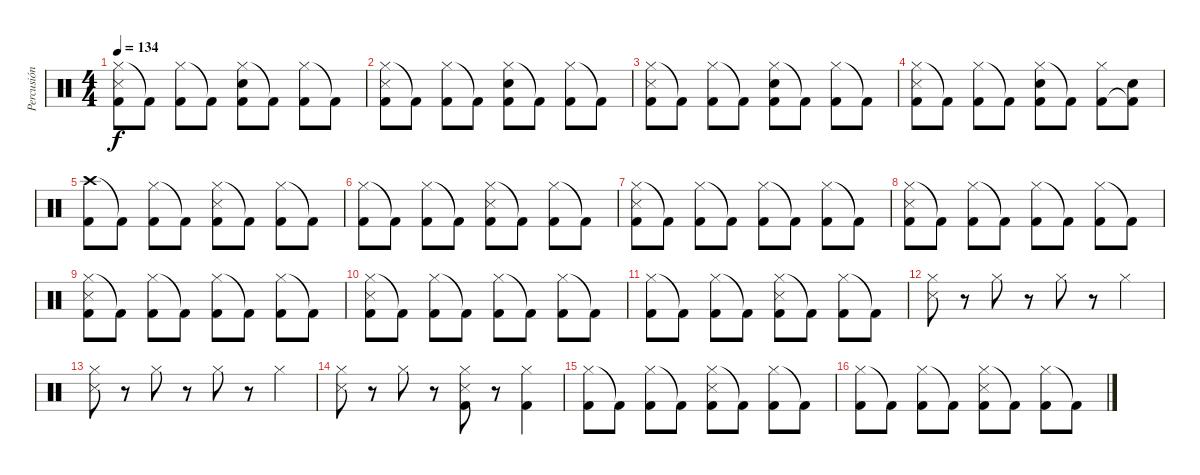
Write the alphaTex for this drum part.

\track ("Percusión" "Percusión") {instrument percussion}
\staff {score}
\articulation defaults
\ts (4 4)
\tempo 134
\clef neutral
\ks c
("Hi-Hat (closed)" "Snare (side stick) 3" "Kick (hit) 2").8{dy f} "Kick (hit) 2"{t}.8 ("Hi-Hat (closed)" "Kick (hit) 2").8 "Kick (hit) 2"{t}.8 ("Hi-Hat (closed)" "Snare (hit) 2" "Kick (hit) 2").8 "Kick (hit) 2"{t}.8 ("Hi-Hat (closed)" "Kick (hit) 2").8 "Kick (hit) 2"{t}.8 |
("Hi-Hat (closed)" "Snare (side stick) 3" "Kick (hit) 2").8 "Kick (hit) 2"{t}.8 ("Hi-Hat (closed)" "Kick (hit) 2").8 "Kick (hit) 2"{t}.8 ("Hi-Hat (closed)" "Snare (hit) 2" "Kick (hit) 2").8 "Kick (hit) 2"{t}.8 ("Hi-Hat (closed)" "Kick (hit) 2").8 "Kick (hit) 2"{t}.8 |
("Hi-Hat (closed)" "Snare (side stick) 3" "Kick (hit) 2").8 "Kick (hit) 2"{t}.8 ("Hi-Hat (closed)" "Kick (hit) 2").8 "Kick (hit) 2"{t}.8 ("Hi-Hat (closed)" "Snare (hit) 2" "Kick (hit) 2").8 "Kick (hit) 2"{t}.8 ("Hi-Hat (closed)" "Kick (hit) 2").8 "Kick (hit) 2"{t}.8 |
("Hi-Hat (closed)" "Snare (side stick) 3" "Kick (hit) 2").8 "Kick (hit) 2"{t}.8 ("Hi-Hat (closed)" "Kick (hit) 2").8 "Kick (hit) 2"{t}.8 ("Hi-Hat (closed)" "Snare (hit) 2" "Kick (hit) 2").8 "Kick (hit) 2"{t}.8 ("Hi-Hat (closed)" "Kick (hit) 2").8 ("Electric Snare (hit)" "Kick (hit) 2"{t}).8 |
("Crash high (hit)" "Kick (hit) 2").8 "Kick (hit) 2"{t}.8 ("Hi-Hat (closed)" "Kick (hit) 2").8 "Kick (hit) 2"{t}.8 ("Hi-Hat (closed)" "Snare (side stick) 3" "Kick (hit) 2").8 "Kick (hit) 2"{t}.8 ("Hi-Hat (closed)" "Kick (hit) 2").8 "Kick (hit) 2"{t}.8 |
("Hi-Hat (closed)" "Kick (hit) 2").8 "Kick (hit) 2"{t}.8 ("Hi-Hat (closed)" "Kick (hit) 2").8 "Kick (hit) 2"{t}.8 ("Hi-Hat (closed)" "Snare (side stick) 3" "Kick (hit) 2").8 "Kick (hit) 2"{t}.8 ("Hi-Hat (closed)" "Kick (hit) 2").8 "Kick (hit) 2"{t}.8 |
("Hi-Hat (closed)" "Snare (side stick) 3" "Kick (hit) 2").8 "Kick (hit) 2"{t}.8 ("Hi-Hat (closed)" "Kick (hit) 2").8 "Kick (hit) 2"{t}.8 ("Hi-Hat (closed)" "Kick (hit) 2").8 "Kick (hit) 2"{t}.8 ("Hi-Hat (closed)" "Kick (hit) 2").8 "Kick (hit) 2"{t}.8 |
("Hi-Hat (closed)" "Snare (side stick) 3" "Kick (hit) 2").8 "Kick (hit) 2"{t}.8 ("Hi-Hat (closed)" "Kick (hit) 2").8 "Kick (hit) 2"{t}.8 ("Hi-Hat (closed)" "Kick (hit) 2").8 "Kick (hit) 2"{t}.8 ("Hi-Hat (closed)" "Kick (hit) 2").8 "Kick (hit) 2"{t}.8 |
("Hi-Hat (closed)" "Snare (side stick) 3" "Kick (hit) 2").8 "Kick (hit) 2"{t}.8 ("Hi-Hat (closed)" "Kick (hit) 2").8 "Kick (hit) 2"{t}.8 ("Hi-Hat (closed)" "Kick (hit) 2").8 "Kick (hit) 2"{t}.8 ("Hi-Hat (closed)" "Kick (hit) 2").8 "Kick (hit) 2"{t}.8 |
("Hi-Hat (closed)" "Snare (side stick) 3" "Kick (hit) 2").8 "Kick (hit) 2"{t}.8 ("Hi-Hat (closed)" "Kick (hit) 2").8 "Kick (hit) 2"{t}.8 ("Hi-Hat (closed)" "Kick (hit) 2").8 "Kick (hit) 2"{t}.8 ("Hi-Hat (closed)" "Kick (hit) 2").8 "Kick (hit) 2"{t}.8 |
("Hi-Hat (closed)" "Kick (hit) 2").8 "Kick (hit) 2"{t}.8 ("Hi-Hat (closed)" "Kick (hit) 2").8 "Kick (hit) 2"{t}.8 ("Hi-Hat (closed)" "Snare (side stick) 3" "Kick (hit) 2").8 "Kick (hit) 2"{t}.8 ("Hi-Hat (closed)" "Kick (hit) 2").8 "Kick (hit) 2"{t}.8 |
("Hi-Hat (closed)" "Snare (side stick) 3").8 r.8 "Hi-Hat (closed)".8 r.8 "Hi-Hat (closed)".8 r.8 "Hi-Hat (closed)".4 |
("Hi-Hat (closed)" "Snare (side stick) 3").8 r.8 "Hi-Hat (closed)".8 r.8 "Hi-Hat (closed)".8 r.8 "Hi-Hat (closed)".4 |
("Hi-Hat (closed)" "Snare (side stick) 3").8 r.8 "Hi-Hat (closed)".8 r.8 ("Hi-Hat (closed)" "Snare (side stick) 3" "Kick (hit) 2").8 r.8 ("Hi-Hat (closed)" "Kick (hit) 2").4 |
("Hi-Hat (closed)" "Kick (hit) 2").8 "Kick (hit) 2"{t}.8 ("Hi-Hat (closed)" "Kick (hit) 2").8 "Kick (hit) 2"{t}.8 ("Hi-Hat (closed)" "Snare (side stick) 3" "Kick (hit) 2").8 "Kick (hit) 2"{t}.8 ("Hi-Hat (closed)" "Kick (hit) 2").8 "Kick (hit) 2"{t}.8 |
("Hi-Hat (closed)" "Kick (hit) 2").8 "Kick (hit) 2"{t}.8 ("Hi-Hat (closed)" "Kick (hit) 2").8 "Kick (hit) 2"{t}.8 ("Hi-Hat (closed)" "Snare (side stick) 3" "Kick (hit) 2").8 "Kick (hit) 2"{t}.8 ("Hi-Hat (closed)" "Kick (hit) 2").8 "Kick (hit) 2"{t}.8
